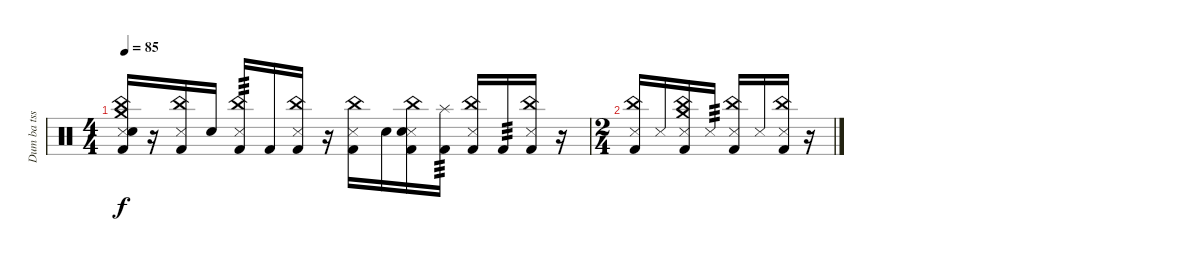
\track ("Dum ba tss" "Dum ba tss") {instrument percussion}
\staff {score}
\articulation defaults
\ts (4 4)
\tempo 85
\clef neutral
\ks c
("Snare (side stick) 3" "China (hit)" "Crash medium (hit)" "Electric Snare (hit)" "Kick (hit) 2").16{dy f} r.16 ("Snare (side stick) 3" "China (hit)" "Kick (hit) 2").16 "Electric Snare (hit)".16 ("Snare (side stick) 3" "China (hit)" "Kick (hit) 2").16{tp 3} "Kick (hit) 2".16 ("Snare (side stick) 3" "China (hit)" "Kick (hit) 2").16 r.16 ("Snare (side stick) 3" "China (hit)" "Kick (hit) 2").16 "Electric Snare (hit)".16 ("Snare (side stick) 3" "China (hit)" "Electric Snare (hit)" "Kick (hit) 2").16 ("Splash (hit)" "Kick (hit) 2").16{tp 3} ("Snare (side stick) 3" "China (hit)" "Kick (hit) 2").16 "Kick (hit) 2".16{tp 3} ("Snare (side stick) 3" "China (hit)" "Kick (hit) 2").16 r.16 |
\ts (2 4)
("Snare (side stick) 3" "China (hit)" "Kick (hit) 2").16 "Snare (side stick) 3".16 ("Snare (side stick) 3" "China (hit)" "Crash medium (hit)" "Kick (hit) 2").16 "Snare (side stick) 3".16{tp 3} ("Snare (side stick) 3" "China (hit)" "Kick (hit) 2").16 "Snare (side stick) 3".16 ("Snare (side stick) 3" "China (hit)" "Kick (hit) 2").16 r.16
